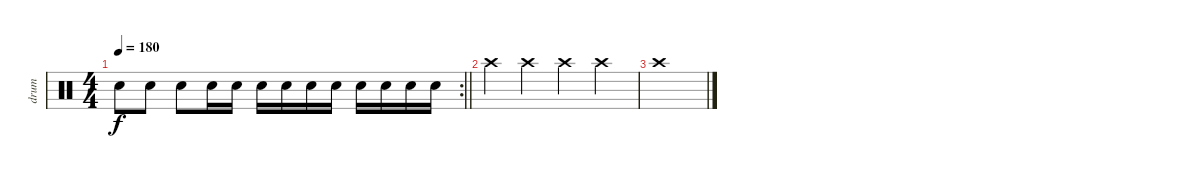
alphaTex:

\track ("drum" "drum") {instrument percussion}
\staff {score}
\articulation defaults
\rc 2
\ts (4 4)
\tempo 180
\clef neutral
\barLineRight lightlight
\ks c "Snare (hit) 2".8{dy f} "Snare (hit) 2".8 "Snare (hit) 2".8 "Snare (hit) 2".16 "Snare (hit) 2".16 "Snare (hit) 2".16 "Snare (hit) 2".16 "Snare (hit) 2".16 "Snare (hit) 2".16 "Snare (hit) 2".16 "Snare (hit) 2".16 "Snare (hit) 2".16 "Snare (hit) 2".16
|
"Crash high (hit)".4 "Crash high (hit)".4 "Crash high (hit)".4 "Crash high (hit)".4 |
"Crash high (hit)".1
